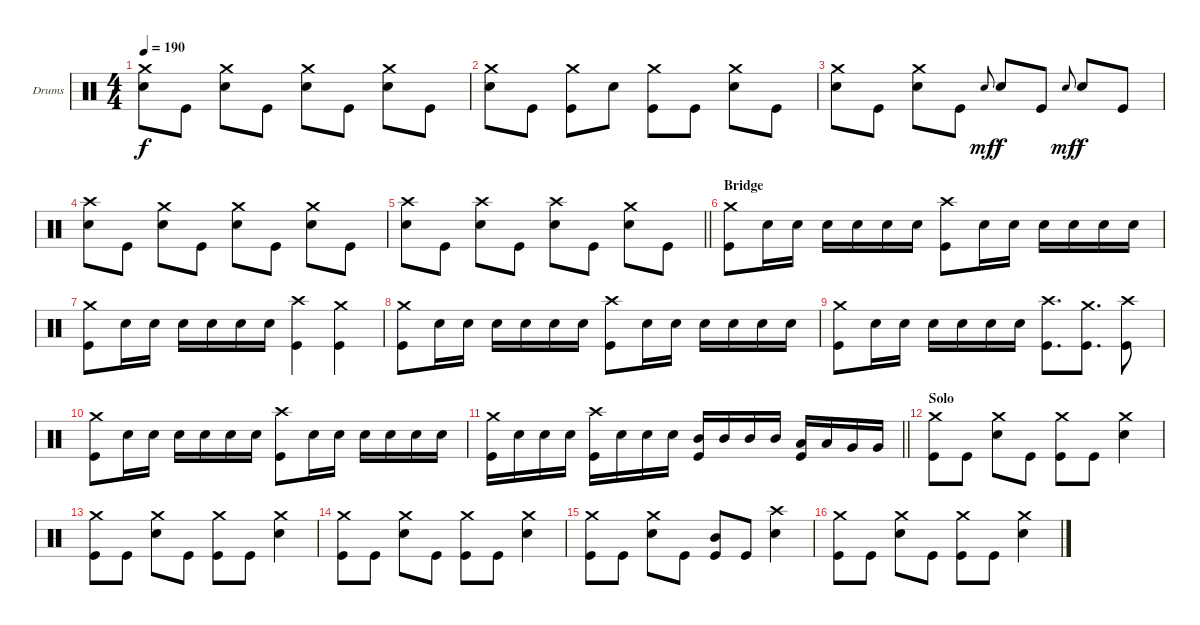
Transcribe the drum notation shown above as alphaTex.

\bracketExtendMode groupsimilarinstruments
\firstSystemTrackNameOrientation horizontal
\otherSystemsTrackNameOrientation horizontal
\track ("Drumkit" "Drums") {instrument percussion}
\staff {score}
\articulation defaults
\ts (4 4)
\tempo 190
\clef neutral
\ks c
("Crash medium (hit)" "Snare (hit) 2").8{dy f} "Kick (hit)".8 ("Crash medium (hit)" "Snare (hit) 2").8 "Kick (hit)".8 ("Crash medium (hit)" "Snare (hit) 2").8 "Kick (hit)".8 ("Crash medium (hit)" "Snare (hit) 2").8 "Kick (hit)".8 |
("Crash medium (hit)" "Snare (hit) 2").8 "Kick (hit)".8 ("Crash medium (hit)" "Kick (hit)").8 "Snare (hit) 2".8 ("Crash medium (hit)" "Kick (hit)").8 "Kick (hit)".8 ("Crash medium (hit)" "Snare (hit) 2").8 "Kick (hit)".8 |
("Crash medium (hit)" "Snare (hit) 2").8 "Kick (hit)".8 ("Crash medium (hit)" "Snare (hit) 2").8 "Kick (hit)".8 "Snare (hit) 2".8{gr onbeat dy mf} "Snare (hit) 2".8{dy f} "Kick (hit)".8 "Snare (hit) 2".8{gr onbeat dy mf} "Snare (hit) 2".8{dy f} "Kick (hit)".8 |
("Crash high (hit)" "Snare (hit) 2").8 "Kick (hit)".8 ("Crash medium (hit)" "Snare (hit) 2").8 "Kick (hit)".8 ("Crash medium (hit)" "Snare (hit) 2").8 "Kick (hit)".8 ("Crash medium (hit)" "Snare (hit) 2").8 "Kick (hit)".8 |
\barLineRight lightlight
("Crash high (hit)" "Snare (hit) 2").8 "Kick (hit)".8 ("Crash high (hit)" "Snare (hit) 2").8 "Kick (hit)".8 ("Crash high (hit)" "Snare (hit) 2").8 "Kick (hit)".8 ("Crash medium (hit)" "Snare (hit) 2").8 "Kick (hit)".8 |
\section ("" "Bridge")
("Crash medium (hit)" "Kick (hit)").8 "Snare (hit) 2".16 "Snare (hit) 2".16 "Snare (hit) 2".16 "Snare (hit) 2".16 "Snare (hit) 2".16 "Snare (hit) 2".16 ("Crash high (hit)" "Kick (hit)").8 "Snare (hit) 2".16 "Snare (hit) 2".16 "Snare (hit) 2".16 "Snare (hit) 2".16 "Snare (hit) 2".16 "Snare (hit) 2".16 |
("Crash medium (hit)" "Kick (hit)").8 "Snare (hit) 2".16 "Snare (hit) 2".16 "Snare (hit) 2".16 "Snare (hit) 2".16 "Snare (hit) 2".16 "Snare (hit) 2".16 ("Crash high (hit)" "Kick (hit)").4 ("Crash medium (hit)" "Kick (hit)").4 |
("Crash medium (hit)" "Kick (hit)").8 "Snare (hit) 2".16 "Snare (hit) 2".16 "Snare (hit) 2".16 "Snare (hit) 2".16 "Snare (hit) 2".16 "Snare (hit) 2".16 ("Crash high (hit)" "Kick (hit)").8 "Snare (hit) 2".16 "Snare (hit) 2".16 "Snare (hit) 2".16 "Snare (hit) 2".16 "Snare (hit) 2".16 "Snare (hit) 2".16 |
("Crash medium (hit)" "Kick (hit)").8 "Snare (hit) 2".16 "Snare (hit) 2".16 "Snare (hit) 2".16 "Snare (hit) 2".16 "Snare (hit) 2".16 "Snare (hit) 2".16 ("Crash high (hit)" "Kick (hit)").8{d} ("Crash medium (hit)" "Kick (hit)").8{d} ("Crash high (hit)" "Kick (hit)").8 |
("Crash medium (hit)" "Kick (hit)").8 "Snare (hit) 2".16 "Snare (hit) 2".16 "Snare (hit) 2".16 "Snare (hit) 2".16 "Snare (hit) 2".16 "Snare (hit) 2".16 ("Crash high (hit)" "Kick (hit)").8 "Snare (hit) 2".16 "Snare (hit) 2".16 "Snare (hit) 2".16 "Snare (hit) 2".16 "Snare (hit) 2".16 "Snare (hit) 2".16 |
\barLineRight lightlight
("Crash medium (hit)" "Kick (hit)").16 "Snare (hit) 2".16 "Snare (hit) 2".16 "Snare (hit) 2".16 ("Crash high (hit)" "Kick (hit)").16 "Snare (hit) 2".16 "Snare (hit) 2".16 "Snare (hit) 2".16 ("Mid Tom (hit)" "Kick (hit)").16 "Mid Tom (hit)".16 "Mid Tom (hit)".16 "Mid Tom (hit)".16 ("Low Tom (hit)" "Kick (hit)").16 "Low Tom (hit)".16 "Very Low Tom (hit)".16 "Very Low Tom (hit)".16 |
\section ("" "Solo")
("Crash medium (hit)" "Kick (hit)").8 "Kick (hit)".8 ("Crash medium (hit)" "Snare (hit) 2").8 "Kick (hit)".8 ("Crash medium (hit)" "Kick (hit)").8 "Kick (hit)".8 ("Crash medium (hit)" "Snare (hit) 2").4 |
("Crash medium (hit)" "Kick (hit)").8 "Kick (hit)".8 ("Crash medium (hit)" "Snare (hit) 2").8 "Kick (hit)".8 ("Crash medium (hit)" "Kick (hit)").8 "Kick (hit)".8 ("Crash medium (hit)" "Snare (hit) 2").4 |
("Crash medium (hit)" "Kick (hit)").8 "Kick (hit)".8 ("Crash medium (hit)" "Snare (hit) 2").8 "Kick (hit)".8 ("Crash medium (hit)" "Kick (hit)").8 "Kick (hit)".8 ("Crash medium (hit)" "Snare (hit) 2").4 |
("Crash medium (hit)" "Kick (hit)").8 "Kick (hit)".8 ("Crash medium (hit)" "Snare (hit) 2").8 "Kick (hit)".8 ("Mid Tom (hit)" "Kick (hit)").8 "Kick (hit)".8 ("Crash high (hit)" "Snare (hit) 2").4 |
("Crash medium (hit)" "Kick (hit)").8 "Kick (hit)".8 ("Crash medium (hit)" "Snare (hit) 2").8 "Kick (hit)".8 ("Crash medium (hit)" "Kick (hit)").8 "Kick (hit)".8 ("Crash medium (hit)" "Snare (hit) 2").4
